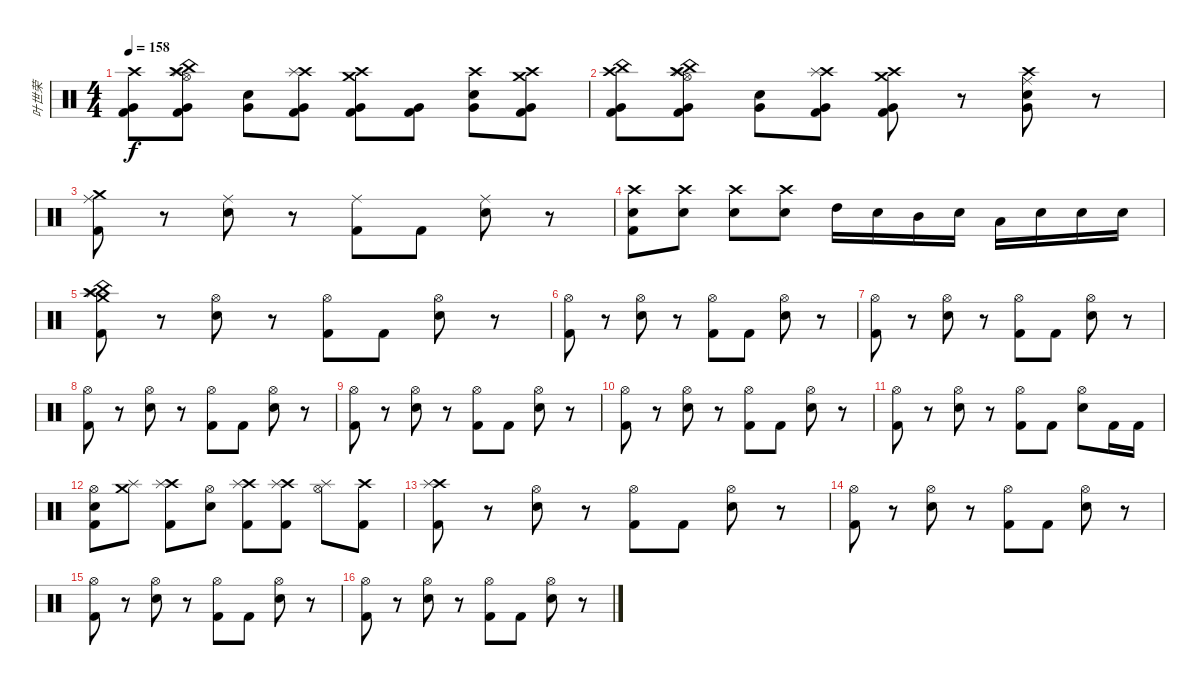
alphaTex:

\track ("叶世荣" "叶世荣") {instrument percussion}
\staff {score}
\articulation defaults
\ts (4 4)
\tempo 158
\clef neutral
\ks c
("Crash high (hit)" "Kick (hit) 2" "Very Low Tom (hit)").8{dy f} ("Crash high (hit)" "China (hit)" "Hi-Hat (open)" "Splash (hit)" "Kick (hit) 2" "Very Low Tom (hit)").8 ("Snare (hit) 2" "Very Low Tom (hit)").8 ("Crash high (hit)" "Splash (hit)" "Kick (hit) 2" "Very Low Tom (hit)").8 ("Crash high (hit)" "Crash medium (hit)" "Kick (hit) 2" "Very Low Tom (hit)").8 ("Kick (hit) 2" "Very Low Tom (hit)").8 ("Crash high (hit)" "Snare (hit) 2" "Very Low Tom (hit)").8 ("Crash high (hit)" "Crash medium (hit)" "Kick (hit) 2" "Very Low Tom (hit)").8 |
("Crash high (hit)" "China (hit)" "Kick (hit) 2" "Very Low Tom (hit)").8 ("Crash high (hit)" "China (hit)" "Hi-Hat (open)" "Splash (hit)" "Kick (hit) 2" "Very Low Tom (hit)").8 ("Snare (hit) 2" "Very Low Tom (hit)").8 ("Crash high (hit)" "Splash (hit)" "Kick (hit) 2" "Very Low Tom (hit)").8 ("Crash high (hit)" "Crash medium (hit)" "Kick (hit) 2" "Very Low Tom (hit)").8 r.8 ("Crash high (hit)" "Ride (middle)" "Snare (hit) 2" "Very Low Tom (hit)").8 r.8 |
("Ride (middle)" "Crash medium (hit)" "Kick (hit) 2").8 r.8 ("Ride (middle)" "Snare (hit) 2").8 r.8 ("Ride (middle)" "Kick (hit) 2").8 "Kick (hit) 2".8 ("Ride (middle)" "Snare (hit) 2").8 r.8 |
("Crash high (hit)" "Snare (hit) 2" "Kick (hit) 2").8 ("Crash high (hit)" "Snare (hit) 2").8 ("Crash high (hit)" "Snare (hit) 2").8 ("Crash high (hit)" "Snare (hit) 2").8 "High Tom (hit)".16 "Snare (hit) 2".16 "Mid Tom (hit)".16 "Snare (hit) 2".16 "Low Tom (hit)".16 "Snare (hit) 2".16 "Snare (hit) 2".16 "Snare (hit) 2".16 |
("Crash high (hit)" "Splash (hit)" "Crash medium (hit)" "China (hit)" "Kick (hit) 2").8 r.8 ("Hi-Hat (open)" "Snare (hit) 2").8 r.8 ("Hi-Hat (open)" "Kick (hit) 2").8 "Kick (hit) 2".8 ("Hi-Hat (open)" "Snare (hit) 2").8 r.8 |
("Hi-Hat (open)" "Kick (hit) 2").8 r.8 ("Hi-Hat (open)" "Snare (hit) 2").8 r.8 ("Hi-Hat (open)" "Kick (hit) 2").8 "Kick (hit) 2".8 ("Hi-Hat (open)" "Snare (hit) 2").8 r.8 |
("Hi-Hat (open)" "Kick (hit) 2").8 r.8 ("Hi-Hat (open)" "Snare (hit) 2").8 r.8 ("Hi-Hat (open)" "Kick (hit) 2").8 "Kick (hit) 2".8 ("Hi-Hat (open)" "Snare (hit) 2").8 r.8 |
("Hi-Hat (open)" "Kick (hit) 2").8 r.8 ("Hi-Hat (open)" "Snare (hit) 2").8 r.8 ("Hi-Hat (open)" "Kick (hit) 2").8 "Kick (hit) 2".8 ("Hi-Hat (open)" "Snare (hit) 2").8 r.8 |
("Hi-Hat (open)" "Kick (hit) 2").8 r.8 ("Hi-Hat (open)" "Snare (hit) 2").8 r.8 ("Hi-Hat (open)" "Kick (hit) 2").8 "Kick (hit) 2".8 ("Hi-Hat (open)" "Snare (hit) 2").8 r.8 |
("Hi-Hat (open)" "Kick (hit) 2").8 r.8 ("Hi-Hat (open)" "Snare (hit) 2").8 r.8 ("Hi-Hat (open)" "Kick (hit) 2").8 "Kick (hit) 2".8 ("Hi-Hat (open)" "Snare (hit) 2").8 r.8 |
("Hi-Hat (open)" "Kick (hit) 2").8 r.8 ("Hi-Hat (open)" "Snare (hit) 2").8 r.8 ("Hi-Hat (open)" "Kick (hit) 2").8 "Kick (hit) 2".8 ("Hi-Hat (open)" "Snare (hit) 2").8 "Kick (hit) 2".16 "Kick (hit) 2".16 |
("Hi-Hat (open)" "Snare (hit) 2" "Kick (hit) 2").8 ("Crash medium (hit)" "Splash (hit)").8 ("Crash high (hit)" "Splash (hit)" "Kick (hit) 2").8 ("Hi-Hat (open)" "Snare (hit) 2").8 ("Crash high (hit)" "Splash (hit)" "Kick (hit) 2").8 ("Crash high (hit)" "Splash (hit)" "Kick (hit) 2").8 ("Hi-Hat (open)" "Splash (hit)").8 ("Crash high (hit)" "Kick (hit) 2").8 |
("Crash high (hit)" "Splash (hit)" "Kick (hit) 2").8 r.8 ("Hi-Hat (open)" "Snare (hit) 2").8 r.8 ("Hi-Hat (open)" "Kick (hit) 2").8 "Kick (hit) 2".8 ("Hi-Hat (open)" "Snare (hit) 2").8 r.8 |
("Hi-Hat (open)" "Kick (hit) 2").8 r.8 ("Hi-Hat (open)" "Snare (hit) 2").8 r.8 ("Hi-Hat (open)" "Kick (hit) 2").8 "Kick (hit) 2".8 ("Hi-Hat (open)" "Snare (hit) 2").8 r.8 |
("Hi-Hat (open)" "Kick (hit) 2").8 r.8 ("Hi-Hat (open)" "Snare (hit) 2").8 r.8 ("Hi-Hat (open)" "Kick (hit) 2").8 "Kick (hit) 2".8 ("Hi-Hat (open)" "Snare (hit) 2").8 r.8 |
("Hi-Hat (open)" "Kick (hit) 2").8 r.8 ("Hi-Hat (open)" "Snare (hit) 2").8 r.8 ("Hi-Hat (open)" "Kick (hit) 2").8 "Kick (hit) 2".8 ("Hi-Hat (open)" "Snare (hit) 2").8 r.8
